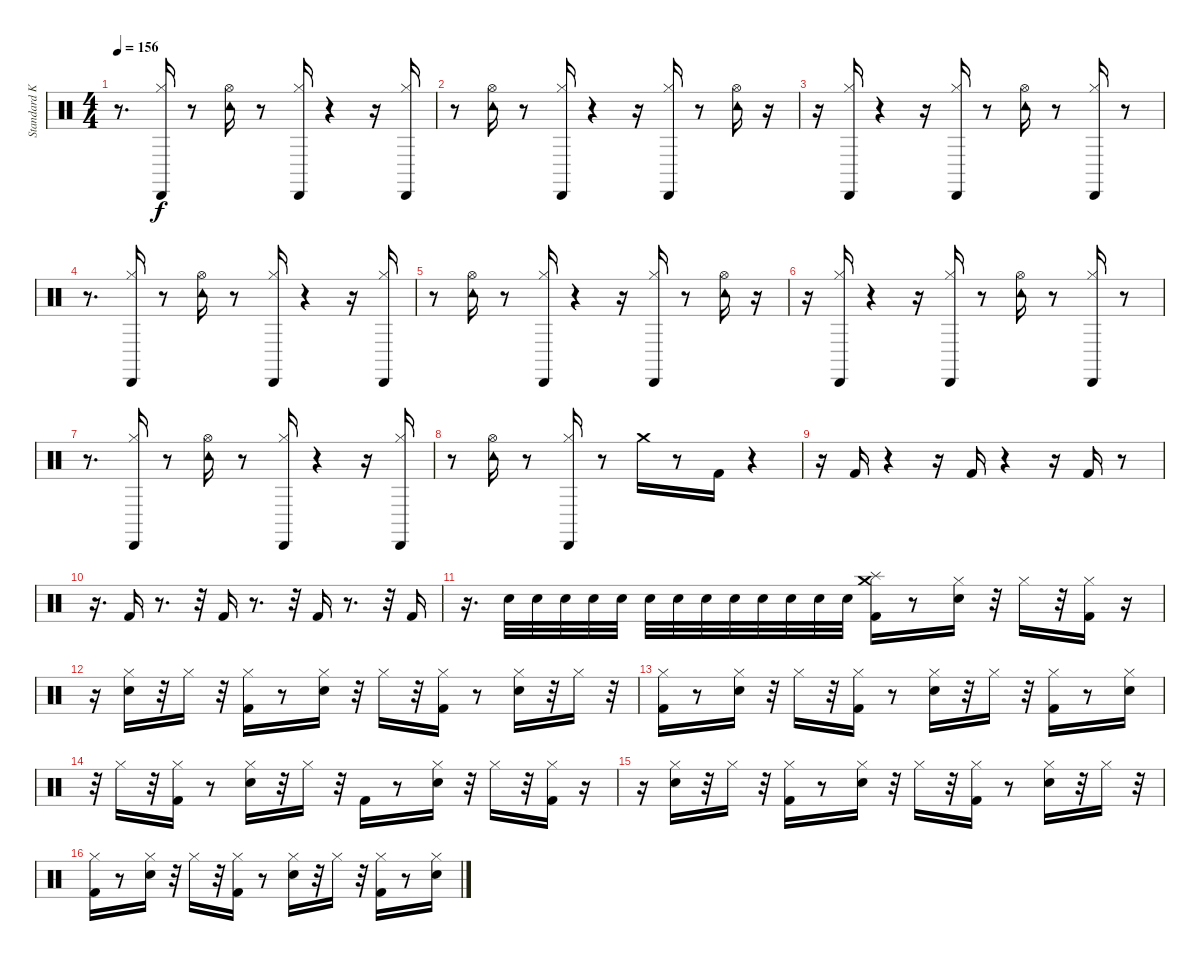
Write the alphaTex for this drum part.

\track ("Standard Kit" "Standard K") {instrument percussion}
\staff {score}
\articulation defaults
\ts (4 4)
\tempo 156
\clef neutral
\ks c
r.8{d dy f} ("Hi-Hat (closed)" "Cabasa (hit)").16 r.8 ("Hi-Hat (open)" "Tambourine (hit)").16 r.8 ("Hi-Hat (closed)" "Cabasa (hit)").16 r.4 r.16 ("Hi-Hat (closed)" "Cabasa (hit)").16 |
r.8 ("Hi-Hat (open)" "Tambourine (hit)").16 r.8 ("Hi-Hat (closed)" "Cabasa (hit)").16 r.4 r.16 ("Hi-Hat (closed)" "Cabasa (hit)").16 r.8 ("Hi-Hat (open)" "Tambourine (hit)").16 r.16 |
r.16 ("Hi-Hat (closed)" "Cabasa (hit)").16 r.4 r.16 ("Hi-Hat (closed)" "Cabasa (hit)").16 r.8 ("Hi-Hat (open)" "Tambourine (hit)").16 r.8 ("Hi-Hat (closed)" "Cabasa (hit)").16 r.8 |
r.8{d} ("Hi-Hat (closed)" "Cabasa (hit)").16 r.8 ("Hi-Hat (open)" "Tambourine (hit)").16 r.8 ("Hi-Hat (closed)" "Cabasa (hit)").16 r.4 r.16 ("Hi-Hat (closed)" "Cabasa (hit)").16 |
r.8 ("Hi-Hat (open)" "Tambourine (hit)").16 r.8 ("Hi-Hat (closed)" "Cabasa (hit)").16 r.4 r.16 ("Hi-Hat (closed)" "Cabasa (hit)").16 r.8 ("Hi-Hat (open)" "Tambourine (hit)").16 r.16 |
r.16 ("Hi-Hat (closed)" "Cabasa (hit)").16 r.4 r.16 ("Hi-Hat (closed)" "Cabasa (hit)").16 r.8 ("Hi-Hat (open)" "Tambourine (hit)").16 r.8 ("Hi-Hat (closed)" "Cabasa (hit)").16 r.8 |
r.8{d} ("Hi-Hat (closed)" "Cabasa (hit)").16 r.8 ("Hi-Hat (open)" "Tambourine (hit)").16 r.8 ("Hi-Hat (closed)" "Cabasa (hit)").16 r.4 r.16 ("Hi-Hat (closed)" "Cabasa (hit)").16 |
r.8 ("Hi-Hat (open)" "Tambourine (hit)").16 r.8 ("Hi-Hat (closed)" "Cabasa (hit)").16 r.8 "Crash medium (hit)".16 r.8 "Kick (hit) 2".16 r.4 |
r.16 "Kick (hit) 2".16 r.4 r.16 "Kick (hit) 2".16 r.4 r.16 "Kick (hit) 2".16 r.8 |
r.16{d} "Kick (hit) 2".16 r.8{d} r.32 "Kick (hit) 2".16 r.8{d} r.32 "Kick (hit) 2".16 r.8{d} r.32 "Kick (hit) 2".16 |
r.16{d} "Electric Snare (hit)".32 "Electric Snare (hit)".32 "Electric Snare (hit)".32 "Electric Snare (hit)".32 "Electric Snare (hit)".32 "Electric Snare (hit)".32 "Electric Snare (hit)".32 "Electric Snare (hit)".32 "Electric Snare (hit)".32 "Electric Snare (hit)".32 "Electric Snare (hit)".32 "Electric Snare (hit)".32 "Electric Snare (hit)".32 ("Kick (hit) 2" "Splash (hit)" "Crash medium (hit)").16 r.8 ("Electric Snare (hit)" "Hi-Hat (closed)").16 r.32 "Hi-Hat (closed)".16 r.32 ("Kick (hit) 2" "Hi-Hat (closed)").16 r.16 |
r.16 ("Electric Snare (hit)" "Hi-Hat (closed)").16 r.32 "Hi-Hat (closed)".16 r.32 ("Kick (hit) 2" "Hi-Hat (closed)").16 r.8 ("Electric Snare (hit)" "Hi-Hat (closed)").16 r.32 "Hi-Hat (closed)".16 r.32 ("Kick (hit) 2" "Hi-Hat (closed)").16 r.8 ("Electric Snare (hit)" "Hi-Hat (closed)").16 r.32 "Hi-Hat (closed)".16 r.32 |
("Kick (hit) 2" "Hi-Hat (closed)").16 r.8 ("Electric Snare (hit)" "Hi-Hat (closed)").16 r.32 "Hi-Hat (closed)".16 r.32 ("Kick (hit) 2" "Hi-Hat (closed)").16 r.8 ("Electric Snare (hit)" "Hi-Hat (closed)").16 r.32 "Hi-Hat (closed)".16 r.32 ("Kick (hit) 2" "Hi-Hat (closed)").16 r.8 ("Electric Snare (hit)" "Hi-Hat (closed)").16 |
r.32 "Hi-Hat (closed)".16 r.32 ("Kick (hit) 2" "Hi-Hat (closed)").16 r.8 ("Electric Snare (hit)" "Hi-Hat (closed)").16 r.32 "Hi-Hat (closed)".16 r.32 "Kick (hit) 2".16 r.8 ("Electric Snare (hit)" "Hi-Hat (closed)").16 r.32 "Hi-Hat (closed)".16 r.32 ("Kick (hit) 2" "Hi-Hat (closed)").16 r.16 |
r.16 ("Electric Snare (hit)" "Hi-Hat (closed)").16 r.32 "Hi-Hat (closed)".16 r.32 ("Kick (hit) 2" "Hi-Hat (closed)").16 r.8 ("Electric Snare (hit)" "Hi-Hat (closed)").16 r.32 "Hi-Hat (closed)".16 r.32 ("Kick (hit) 2" "Hi-Hat (closed)").16 r.8 ("Electric Snare (hit)" "Hi-Hat (closed)").16 r.32 "Hi-Hat (closed)".16 r.32 |
("Kick (hit) 2" "Hi-Hat (closed)").16 r.8 ("Electric Snare (hit)" "Hi-Hat (closed)").16 r.32 "Hi-Hat (closed)".16 r.32 ("Kick (hit) 2" "Hi-Hat (closed)").16 r.8 ("Electric Snare (hit)" "Hi-Hat (closed)").16 r.32 "Hi-Hat (closed)".16 r.32 ("Kick (hit) 2" "Hi-Hat (closed)").16 r.8 ("Electric Snare (hit)" "Hi-Hat (closed)").16
